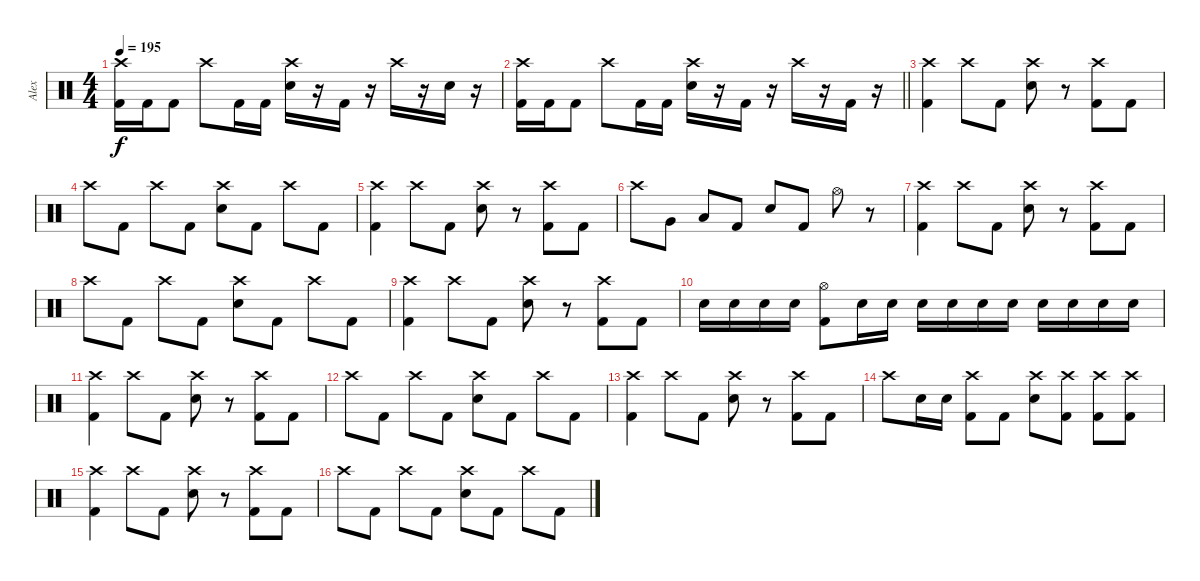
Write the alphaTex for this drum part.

\track ("Alex" "Alex") {instrument percussion}
\staff {score}
\articulation defaults
\ts (4 4)
\tempo 195
\clef neutral
\ks c
("Crash high (hit)" "Kick (hit) 2").16{dy f} "Kick (hit) 2".16 "Kick (hit) 2".8 "Crash high (hit)".8 "Kick (hit) 2".16 "Kick (hit) 2".16 ("Crash high (hit)" "Electric Snare (hit)").16 r.16 "Kick (hit) 2".16 r.16 "Crash high (hit)".16 r.16 "Electric Snare (hit)".16 r.16 |
\barLineRight lightlight
("Crash high (hit)" "Kick (hit) 2").16 "Kick (hit) 2".16 "Kick (hit) 2".8 "Crash high (hit)".8 "Kick (hit) 2".16 "Kick (hit) 2".16 ("Crash high (hit)" "Electric Snare (hit)").16 r.16 "Kick (hit) 2".16 r.16 "Crash high (hit)".16 r.16 "Kick (hit) 2".16 r.16 |
("Crash high (hit)" "Kick (hit) 2").4 "Crash high (hit)".8 "Kick (hit) 2".8 ("Crash high (hit)" "Electric Snare (hit)").8 r.8 ("Crash high (hit)" "Kick (hit) 2").8 "Kick (hit) 2".8 |
"Crash high (hit)".8 "Kick (hit) 2".8 "Crash high (hit)".8 "Kick (hit) 2".8 ("Crash high (hit)" "Electric Snare (hit)").8 "Kick (hit) 2".8 "Crash high (hit)".8 "Kick (hit) 2".8 |
("Crash high (hit)" "Kick (hit) 2").4 "Crash high (hit)".8 "Kick (hit) 2".8 ("Crash high (hit)" "Electric Snare (hit)").8 r.8 ("Crash high (hit)" "Kick (hit) 2").8 "Kick (hit) 2".8 |
"Crash high (hit)".8 "Very Low Tom (hit)".8 "Low Floor Tom (hit)".8 "Kick (hit) 2".8 "Electric Snare (hit)".8 "Kick (hit) 2".8 "Hi-Hat (open)".8 r.8 |
("Crash high (hit)" "Kick (hit) 2").4 "Crash high (hit)".8 "Kick (hit) 2".8 ("Crash high (hit)" "Electric Snare (hit)").8 r.8 ("Crash high (hit)" "Kick (hit) 2").8 "Kick (hit) 2".8 |
"Crash high (hit)".8 "Kick (hit) 2".8 "Crash high (hit)".8 "Kick (hit) 2".8 ("Crash high (hit)" "Electric Snare (hit)").8 "Kick (hit) 2".8 "Crash high (hit)".8 "Kick (hit) 2".8 |
("Crash high (hit)" "Kick (hit) 2").4 "Crash high (hit)".8 "Kick (hit) 2".8 ("Crash high (hit)" "Electric Snare (hit)").8 r.8 ("Crash high (hit)" "Kick (hit) 2").8 "Kick (hit) 2".8 |
"Electric Snare (hit)".16 "Electric Snare (hit)".16 "Electric Snare (hit)".16 "Electric Snare (hit)".16 ("Hi-Hat (open)" "Kick (hit) 2").8 "Electric Snare (hit)".16 "Electric Snare (hit)".16 "Electric Snare (hit)".16 "Electric Snare (hit)".16 "Electric Snare (hit)".16 "Electric Snare (hit)".16 "Electric Snare (hit)".16 "Electric Snare (hit)".16 "Electric Snare (hit)".16 "Electric Snare (hit)".16 |
("Crash high (hit)" "Kick (hit) 2").4 "Crash high (hit)".8 "Kick (hit) 2".8 ("Crash high (hit)" "Electric Snare (hit)").8 r.8 ("Crash high (hit)" "Kick (hit) 2").8 "Kick (hit) 2".8 |
"Crash high (hit)".8 "Kick (hit) 2".8 "Crash high (hit)".8 "Kick (hit) 2".8 ("Crash high (hit)" "Electric Snare (hit)").8 "Kick (hit) 2".8 "Crash high (hit)".8 "Kick (hit) 2".8 |
("Crash high (hit)" "Kick (hit) 2").4 "Crash high (hit)".8 "Kick (hit) 2".8 ("Crash high (hit)" "Electric Snare (hit)").8 r.8 ("Crash high (hit)" "Kick (hit) 2").8 "Kick (hit) 2".8 |
"Crash high (hit)".8 "Electric Snare (hit)".16 "Electric Snare (hit)".16 ("Crash high (hit)" "Kick (hit) 2").8 "Kick (hit) 2".8 ("Crash high (hit)" "Electric Snare (hit)").8 ("Crash high (hit)" "Kick (hit) 2").8 ("Crash high (hit)" "Kick (hit) 2").8 ("Crash high (hit)" "Kick (hit) 2").8 |
("Crash high (hit)" "Kick (hit) 2").4 "Crash high (hit)".8 "Kick (hit) 2".8 ("Crash high (hit)" "Electric Snare (hit)").8 r.8 ("Crash high (hit)" "Kick (hit) 2").8 "Kick (hit) 2".8 |
"Crash high (hit)".8 "Kick (hit) 2".8 "Crash high (hit)".8 "Kick (hit) 2".8 ("Crash high (hit)" "Electric Snare (hit)").8 "Kick (hit) 2".8 "Crash high (hit)".8 "Kick (hit) 2".8
